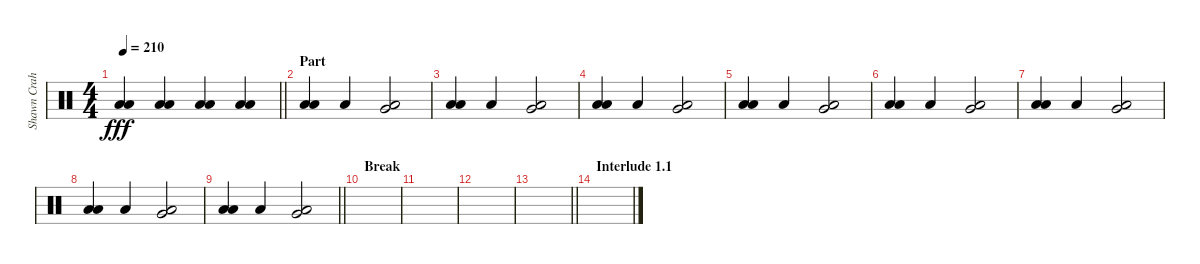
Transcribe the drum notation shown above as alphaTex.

\track ("Shawn Crahan" "Shawn Crah") {instrument percussion}
\staff {score}
\articulation defaults
\ts (4 4)
\tempo 210
\clef neutral
\barLineRight lightlight
\ks c
("Low Floor Tom (hit)" "Low Floor Tom (hit)").4{dy fff} ("Low Floor Tom (hit)" "Low Floor Tom (hit)").4 ("Low Floor Tom (hit)" "Low Floor Tom (hit)").4 ("Low Floor Tom (hit)" "Low Floor Tom (hit)").4 |
\section ("" "Part")
("Low Floor Tom (hit)" "Low Floor Tom (hit)").4 "Low Floor Tom (hit)".4 ("Very Low Tom (hit)" "Low Floor Tom (hit)").2 |
("Low Floor Tom (hit)" "Low Floor Tom (hit)").4 "Low Floor Tom (hit)".4 ("Very Low Tom (hit)" "Low Floor Tom (hit)").2 |
("Low Floor Tom (hit)" "Low Floor Tom (hit)").4 "Low Floor Tom (hit)".4 ("Very Low Tom (hit)" "Low Floor Tom (hit)").2 |
("Low Floor Tom (hit)" "Low Floor Tom (hit)").4 "Low Floor Tom (hit)".4 ("Very Low Tom (hit)" "Low Floor Tom (hit)").2 |
("Low Floor Tom (hit)" "Low Floor Tom (hit)").4 "Low Floor Tom (hit)".4 ("Very Low Tom (hit)" "Low Floor Tom (hit)").2 |
("Low Floor Tom (hit)" "Low Floor Tom (hit)").4 "Low Floor Tom (hit)".4 ("Very Low Tom (hit)" "Low Floor Tom (hit)").2 |
("Low Floor Tom (hit)" "Low Floor Tom (hit)").4 "Low Floor Tom (hit)".4 ("Very Low Tom (hit)" "Low Floor Tom (hit)").2 |
\barLineRight lightlight
("Low Floor Tom (hit)" "Low Floor Tom (hit)").4 "Low Floor Tom (hit)".4 ("Very Low Tom (hit)" "Low Floor Tom (hit)").2 |
\section ("" "Break")
|
|
|
\barLineRight lightlight
|
\section ("" "Interlude 1.1")
